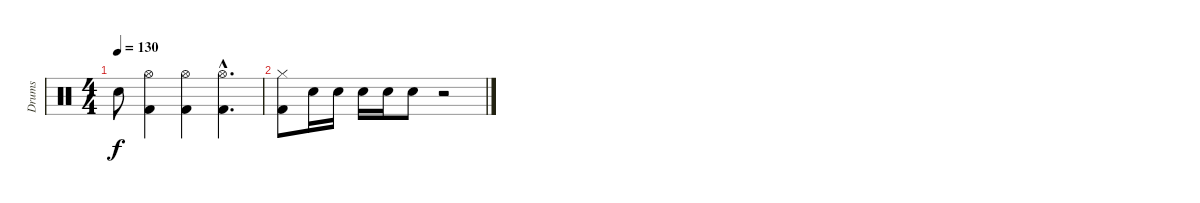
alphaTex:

\track ("Drums" "Drums") {instrument percussion}
\staff {score}
\articulation defaults
\ts (4 4)
\tempo 130
\clef neutral
\ks c "Snare (hit) 2".8{dy f}
("Kick (hit) 2" "Hi-Hat (open)").4 ("Kick (hit) 2" "Hi-Hat (open)").4 ("Kick (hit) 2"{hac} "Hi-Hat (open)"{hac}).4{d} |
("Kick (hit) 2" "Hi-Hat (closed)").8 "Snare (hit) 2".16 "Snare (hit) 2".16 "Snare (hit) 2".16 "Snare (hit) 2".16 "Snare (hit) 2".8 r.2
